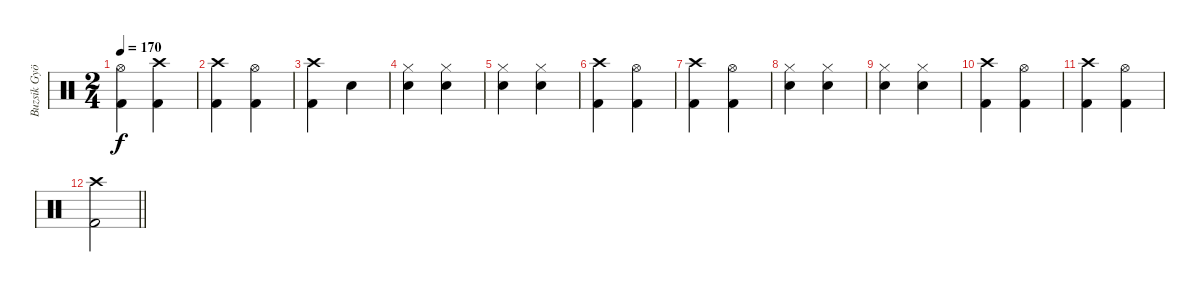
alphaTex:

\track ("Buzsik György (dob)" "Buzsik Gyö") {instrument percussion}
\staff {score}
\articulation defaults
\ts (2 4)
\tempo 170
\clef neutral
\ks c
("Hi-Hat (open)" "Kick (hit) 2").4{dy f} ("Crash high (hit)" "Kick (hit) 2").4 |
("Crash high (hit)" "Kick (hit) 2").4 ("Hi-Hat (open)" "Kick (hit) 2").4 |
("Crash high (hit)" "Kick (hit) 2").4 "Snare (hit) 2".4 |
("Hi-Hat (closed)" "Snare (hit) 2").4 ("Hi-Hat (closed)" "Snare (hit) 2").4 |
("Hi-Hat (closed)" "Snare (hit) 2").4 ("Hi-Hat (closed)" "Snare (hit) 2").4 |
("Crash high (hit)" "Kick (hit) 2").4 ("Hi-Hat (open)" "Kick (hit) 2").4 |
("Crash high (hit)" "Kick (hit) 2").4 ("Hi-Hat (open)" "Kick (hit) 2").4 |
("Hi-Hat (closed)" "Snare (hit) 2").4 ("Hi-Hat (closed)" "Snare (hit) 2").4 |
("Hi-Hat (closed)" "Snare (hit) 2").4 ("Hi-Hat (closed)" "Snare (hit) 2").4 |
("Crash high (hit)" "Kick (hit) 2").4 ("Hi-Hat (open)" "Kick (hit) 2").4 |
("Crash high (hit)" "Kick (hit) 2").4 ("Hi-Hat (open)" "Kick (hit) 2").4 |
\barLineRight lightlight
("Crash high (hit)" "Kick (hit) 2").2
